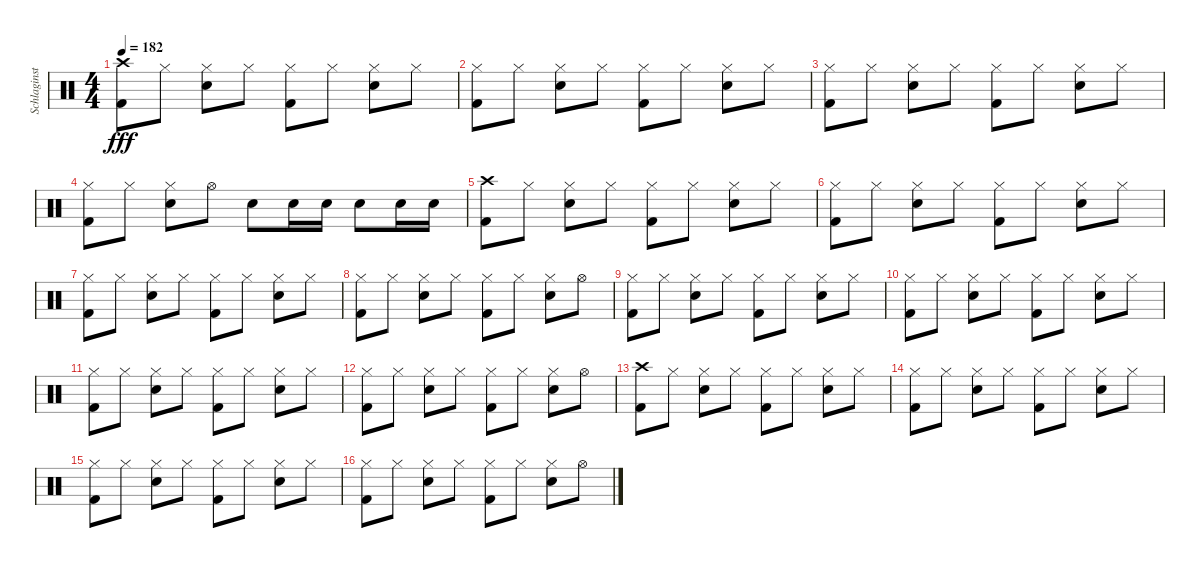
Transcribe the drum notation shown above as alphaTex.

\track ("Schlaginstrumente - Auswahl" "Schlaginst") {instrument percussion}
\staff {score}
\articulation defaults
\ts (4 4)
\tempo 182
\clef neutral
\ks c
("Kick (hit) 2" "Crash high (hit)").8{dy fff} "Hi-Hat (closed)".8 ("Snare (hit) 2" "Hi-Hat (closed)").8 "Hi-Hat (closed)".8 ("Kick (hit) 2" "Hi-Hat (closed)").8 "Hi-Hat (closed)".8 ("Snare (hit) 2" "Hi-Hat (closed)").8 "Hi-Hat (closed)".8 |
("Kick (hit) 2" "Hi-Hat (closed)").8 "Hi-Hat (closed)".8 ("Snare (hit) 2" "Hi-Hat (closed)").8 "Hi-Hat (closed)".8 ("Kick (hit) 2" "Hi-Hat (closed)").8 "Hi-Hat (closed)".8 ("Snare (hit) 2" "Hi-Hat (closed)").8 "Hi-Hat (closed)".8 |
("Kick (hit) 2" "Hi-Hat (closed)").8 "Hi-Hat (closed)".8 ("Snare (hit) 2" "Hi-Hat (closed)").8 "Hi-Hat (closed)".8 ("Kick (hit) 2" "Hi-Hat (closed)").8 "Hi-Hat (closed)".8 ("Snare (hit) 2" "Hi-Hat (closed)").8 "Hi-Hat (closed)".8 |
("Kick (hit) 2" "Hi-Hat (closed)").8 "Hi-Hat (closed)".8 ("Snare (hit) 2" "Hi-Hat (closed)").8 "Hi-Hat (open)".8 "Snare (hit) 2".8 "Snare (hit) 2".16 "Snare (hit) 2".16 "Snare (hit) 2".8 "Snare (hit) 2".16 "Snare (hit) 2".16 |
("Kick (hit) 2" "Crash high (hit)").8 "Hi-Hat (closed)".8 ("Snare (hit) 2" "Hi-Hat (closed)").8 "Hi-Hat (closed)".8 ("Kick (hit) 2" "Hi-Hat (closed)").8 "Hi-Hat (closed)".8 ("Snare (hit) 2" "Hi-Hat (closed)").8 "Hi-Hat (closed)".8 |
("Kick (hit) 2" "Hi-Hat (closed)").8 "Hi-Hat (closed)".8 ("Snare (hit) 2" "Hi-Hat (closed)").8 "Hi-Hat (closed)".8 ("Kick (hit) 2" "Hi-Hat (closed)").8 "Hi-Hat (closed)".8 ("Snare (hit) 2" "Hi-Hat (closed)").8 "Hi-Hat (closed)".8 |
("Kick (hit) 2" "Hi-Hat (closed)").8 "Hi-Hat (closed)".8 ("Snare (hit) 2" "Hi-Hat (closed)").8 "Hi-Hat (closed)".8 ("Kick (hit) 2" "Hi-Hat (closed)").8 "Hi-Hat (closed)".8 ("Snare (hit) 2" "Hi-Hat (closed)").8 "Hi-Hat (closed)".8 |
("Kick (hit) 2" "Hi-Hat (closed)").8 "Hi-Hat (closed)".8 ("Snare (hit) 2" "Hi-Hat (closed)").8 "Hi-Hat (closed)".8 ("Kick (hit) 2" "Hi-Hat (closed)").8 "Hi-Hat (closed)".8 ("Snare (hit) 2" "Hi-Hat (closed)").8 "Hi-Hat (open)".8 |
("Kick (hit) 2" "Hi-Hat (closed)").8 "Hi-Hat (closed)".8 ("Snare (hit) 2" "Hi-Hat (closed)").8 "Hi-Hat (closed)".8 ("Kick (hit) 2" "Hi-Hat (closed)").8 "Hi-Hat (closed)".8 ("Snare (hit) 2" "Hi-Hat (closed)").8 "Hi-Hat (closed)".8 |
("Kick (hit) 2" "Hi-Hat (closed)").8 "Hi-Hat (closed)".8 ("Snare (hit) 2" "Hi-Hat (closed)").8 "Hi-Hat (closed)".8 ("Kick (hit) 2" "Hi-Hat (closed)").8 "Hi-Hat (closed)".8 ("Snare (hit) 2" "Hi-Hat (closed)").8 "Hi-Hat (closed)".8 |
("Kick (hit) 2" "Hi-Hat (closed)").8 "Hi-Hat (closed)".8 ("Snare (hit) 2" "Hi-Hat (closed)").8 "Hi-Hat (closed)".8 ("Kick (hit) 2" "Hi-Hat (closed)").8 "Hi-Hat (closed)".8 ("Snare (hit) 2" "Hi-Hat (closed)").8 "Hi-Hat (closed)".8 |
("Kick (hit) 2" "Hi-Hat (closed)").8 "Hi-Hat (closed)".8 ("Snare (hit) 2" "Hi-Hat (closed)").8 "Hi-Hat (closed)".8 ("Kick (hit) 2" "Hi-Hat (closed)").8 "Hi-Hat (closed)".8 ("Snare (hit) 2" "Hi-Hat (closed)").8 "Hi-Hat (open)".8 |
("Kick (hit) 2" "Crash high (hit)").8 "Hi-Hat (closed)".8 ("Snare (hit) 2" "Hi-Hat (closed)").8 "Hi-Hat (closed)".8 ("Kick (hit) 2" "Hi-Hat (closed)").8 "Hi-Hat (closed)".8 ("Snare (hit) 2" "Hi-Hat (closed)").8 "Hi-Hat (closed)".8 |
("Kick (hit) 2" "Hi-Hat (closed)").8 "Hi-Hat (closed)".8 ("Snare (hit) 2" "Hi-Hat (closed)").8 "Hi-Hat (closed)".8 ("Kick (hit) 2" "Hi-Hat (closed)").8 "Hi-Hat (closed)".8 ("Snare (hit) 2" "Hi-Hat (closed)").8 "Hi-Hat (closed)".8 |
("Kick (hit) 2" "Hi-Hat (closed)").8 "Hi-Hat (closed)".8 ("Snare (hit) 2" "Hi-Hat (closed)").8 "Hi-Hat (closed)".8 ("Kick (hit) 2" "Hi-Hat (closed)").8 "Hi-Hat (closed)".8 ("Snare (hit) 2" "Hi-Hat (closed)").8 "Hi-Hat (closed)".8 |
("Kick (hit) 2" "Hi-Hat (closed)").8 "Hi-Hat (closed)".8 ("Snare (hit) 2" "Hi-Hat (closed)").8 "Hi-Hat (closed)".8 ("Kick (hit) 2" "Hi-Hat (closed)").8 "Hi-Hat (closed)".8 ("Snare (hit) 2" "Hi-Hat (closed)").8 "Hi-Hat (open)".8
